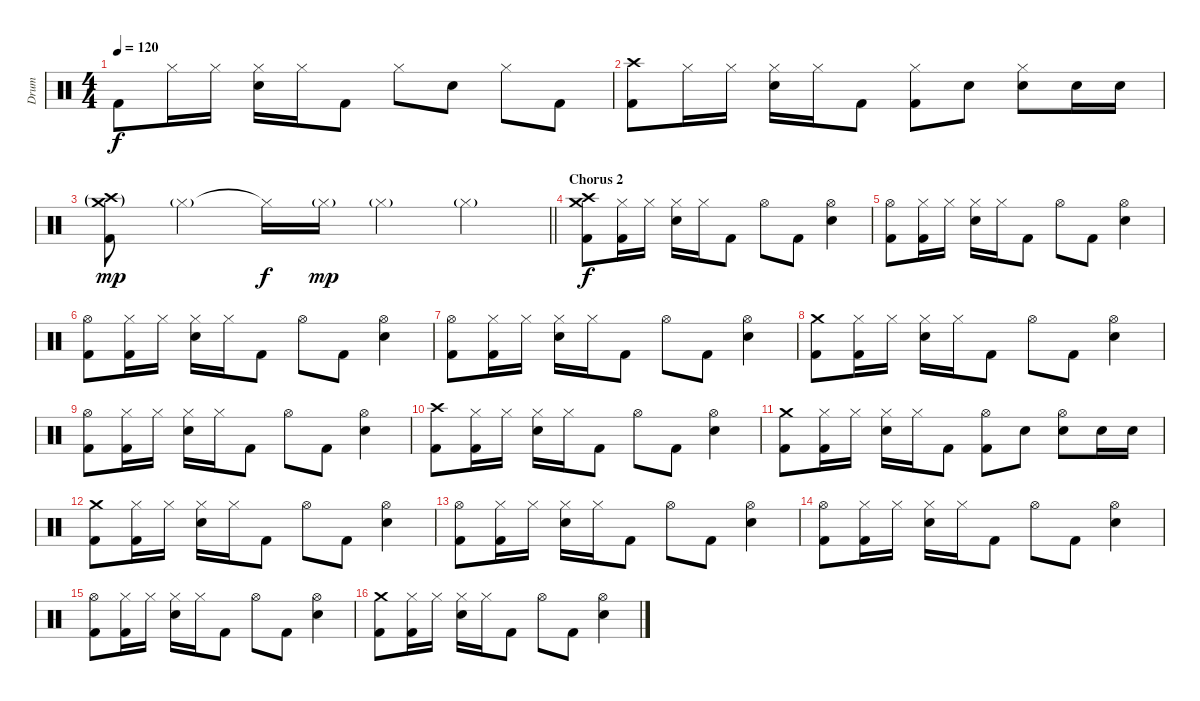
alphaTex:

\track ("Drum" "Drum") {instrument percussion}
\staff {score}
\articulation defaults
\ts (4 4)
\tempo 120
\clef neutral
\ks c "Kick (hit) 2".8{dy f} "Hi-Hat (closed)".16 "Hi-Hat (closed)".16
("Hi-Hat (closed)" "Electric Snare (hit)").16 "Hi-Hat (closed)".16 "Kick (hit) 2".8 "Hi-Hat (closed)".8 "Electric Snare (hit)".8 "Hi-Hat (closed)".8 "Kick (hit) 2".8 |
("Crash high (hit)" "Kick (hit) 2").8 "Hi-Hat (closed)".16 "Hi-Hat (closed)".16 ("Hi-Hat (closed)" "Electric Snare (hit)").16 "Hi-Hat (closed)".16 "Kick (hit) 2".8 ("Hi-Hat (closed)" "Kick (hit) 2").8 "Electric Snare (hit)".8 ("Hi-Hat (closed)" "Electric Snare (hit)").8 "Electric Snare (hit)".16 "Electric Snare (hit)".16 |
\barLineRight lightlight
("Crash medium (hit)"{g} "Crash high (hit)"{g} "Kick (hit) 2").8{dy mp} "Hi-Hat (closed)"{g}.4 "Hi-Hat (closed)"{t}.16{dy f} "Hi-Hat (closed)"{g}.16{dy mp} "Hi-Hat (closed)"{g}.4 "Hi-Hat (closed)"{g}.4 |
\section ("" "Chorus 2")
("Crash medium (hit)" "Crash high (hit)" "Kick (hit) 2").8{dy f} ("Hi-Hat (closed)" "Kick (hit) 2").16 "Hi-Hat (closed)".16 ("Hi-Hat (closed)" "Electric Snare (hit)").16 "Hi-Hat (closed)".16 "Kick (hit) 2".8 "Hi-Hat (open)".8 "Kick (hit) 2".8 ("Hi-Hat (open)" "Electric Snare (hit)").4 |
("Hi-Hat (open)" "Kick (hit) 2").8 ("Hi-Hat (closed)" "Kick (hit) 2").16 "Hi-Hat (closed)".16 ("Hi-Hat (closed)" "Electric Snare (hit)").16 "Hi-Hat (closed)".16 "Kick (hit) 2".8 "Hi-Hat (open)".8 "Kick (hit) 2".8 ("Hi-Hat (open)" "Electric Snare (hit)").4 |
("Hi-Hat (open)" "Kick (hit) 2").8 ("Hi-Hat (closed)" "Kick (hit) 2").16 "Hi-Hat (closed)".16 ("Hi-Hat (closed)" "Electric Snare (hit)").16 "Hi-Hat (closed)".16 "Kick (hit) 2".8 "Hi-Hat (open)".8 "Kick (hit) 2".8 ("Hi-Hat (open)" "Electric Snare (hit)").4 |
("Hi-Hat (open)" "Kick (hit) 2").8 ("Hi-Hat (closed)" "Kick (hit) 2").16 "Hi-Hat (closed)".16 ("Hi-Hat (closed)" "Electric Snare (hit)").16 "Hi-Hat (closed)".16 "Kick (hit) 2".8 "Hi-Hat (open)".8 "Kick (hit) 2".8 ("Hi-Hat (open)" "Electric Snare (hit)").4 |
("Crash medium (hit)" "Kick (hit) 2").8 ("Hi-Hat (closed)" "Kick (hit) 2").16 "Hi-Hat (closed)".16 ("Hi-Hat (closed)" "Electric Snare (hit)").16 "Hi-Hat (closed)".16 "Kick (hit) 2".8 "Hi-Hat (open)".8 "Kick (hit) 2".8 ("Hi-Hat (open)" "Electric Snare (hit)").4 |
("Hi-Hat (open)" "Kick (hit) 2").8 ("Hi-Hat (closed)" "Kick (hit) 2").16 "Hi-Hat (closed)".16 ("Hi-Hat (closed)" "Electric Snare (hit)").16 "Hi-Hat (closed)".16 "Kick (hit) 2".8 "Hi-Hat (open)".8 "Kick (hit) 2".8 ("Hi-Hat (open)" "Electric Snare (hit)").4 |
("Crash high (hit)" "Kick (hit) 2").8 ("Hi-Hat (closed)" "Kick (hit) 2").16 "Hi-Hat (closed)".16 ("Hi-Hat (closed)" "Electric Snare (hit)").16 "Hi-Hat (closed)".16 "Kick (hit) 2".8 "Hi-Hat (open)".8 "Kick (hit) 2".8 ("Hi-Hat (open)" "Electric Snare (hit)").4 |
("Crash medium (hit)" "Kick (hit) 2").8 ("Hi-Hat (closed)" "Kick (hit) 2").16 "Hi-Hat (closed)".16 ("Hi-Hat (closed)" "Electric Snare (hit)").16 "Hi-Hat (closed)".16 "Kick (hit) 2".8 ("Hi-Hat (open)" "Kick (hit) 2").8 "Electric Snare (hit)".8 ("Hi-Hat (open)" "Electric Snare (hit)").8 "Electric Snare (hit)".16 "Electric Snare (hit)".16 |
("Crash medium (hit)" "Kick (hit) 2").8 ("Hi-Hat (closed)" "Kick (hit) 2").16 "Hi-Hat (closed)".16 ("Hi-Hat (closed)" "Electric Snare (hit)").16 "Hi-Hat (closed)".16 "Kick (hit) 2".8 "Hi-Hat (open)".8 "Kick (hit) 2".8 ("Hi-Hat (open)" "Electric Snare (hit)").4 |
("Hi-Hat (open)" "Kick (hit) 2").8 ("Hi-Hat (closed)" "Kick (hit) 2").16 "Hi-Hat (closed)".16 ("Hi-Hat (closed)" "Electric Snare (hit)").16 "Hi-Hat (closed)".16 "Kick (hit) 2".8 "Hi-Hat (open)".8 "Kick (hit) 2".8 ("Hi-Hat (open)" "Electric Snare (hit)").4 |
("Hi-Hat (open)" "Kick (hit) 2").8 ("Hi-Hat (closed)" "Kick (hit) 2").16 "Hi-Hat (closed)".16 ("Hi-Hat (closed)" "Electric Snare (hit)").16 "Hi-Hat (closed)".16 "Kick (hit) 2".8 "Hi-Hat (open)".8 "Kick (hit) 2".8 ("Hi-Hat (open)" "Electric Snare (hit)").4 |
("Hi-Hat (open)" "Kick (hit) 2").8 ("Hi-Hat (closed)" "Kick (hit) 2").16 "Hi-Hat (closed)".16 ("Hi-Hat (closed)" "Electric Snare (hit)").16 "Hi-Hat (closed)".16 "Kick (hit) 2".8 "Hi-Hat (open)".8 "Kick (hit) 2".8 ("Hi-Hat (open)" "Electric Snare (hit)").4 |
("Crash medium (hit)" "Kick (hit) 2").8 ("Hi-Hat (closed)" "Kick (hit) 2").16 "Hi-Hat (closed)".16 ("Hi-Hat (closed)" "Electric Snare (hit)").16 "Hi-Hat (closed)".16 "Kick (hit) 2".8 "Hi-Hat (open)".8 "Kick (hit) 2".8 ("Hi-Hat (open)" "Electric Snare (hit)").4
